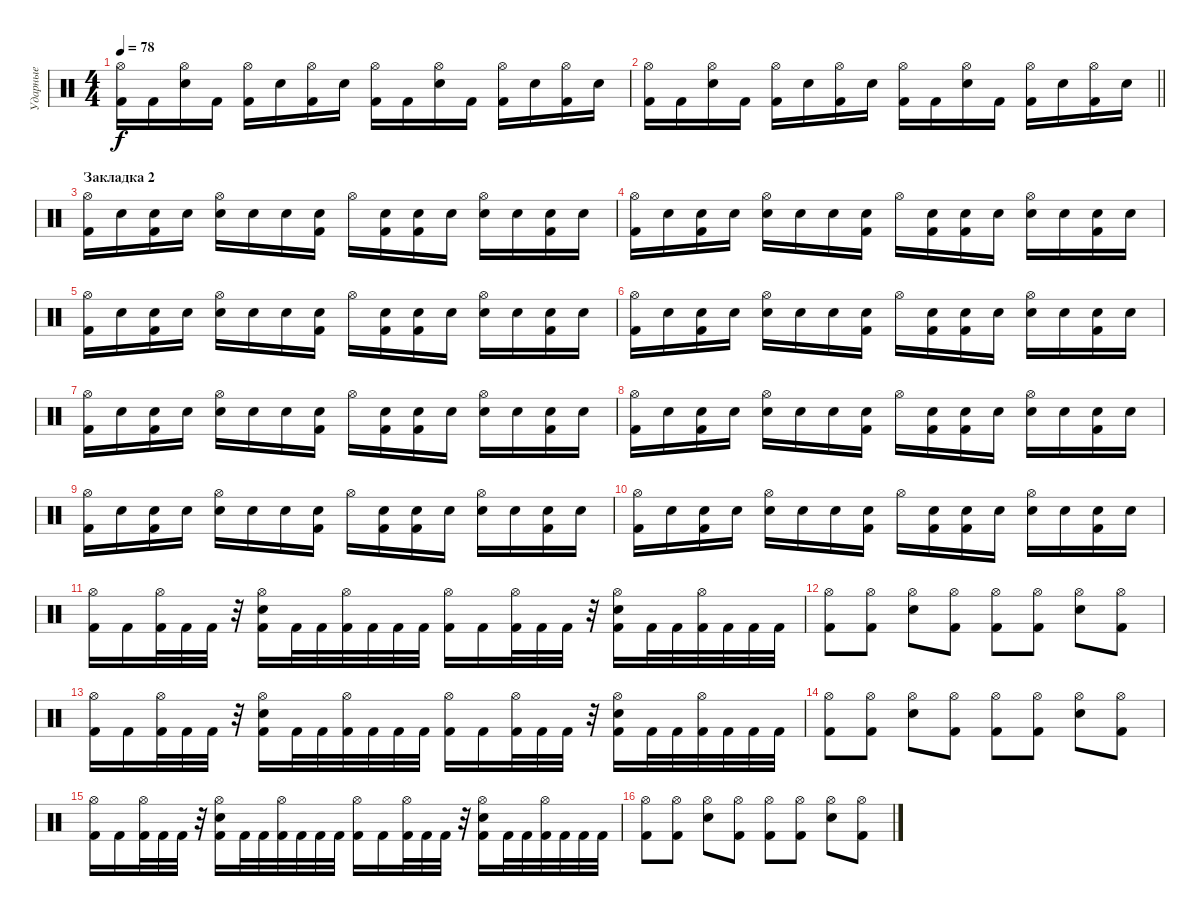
\track ("Ударные" "Ударные") {instrument percussion}
\staff {score}
\articulation defaults
\ts (4 4)
\tempo 78
\clef neutral
\ks c
("Hi-Hat (open)" "Kick (hit) 2").16{dy f} "Kick (hit) 2".16 ("Hi-Hat (open)" "Electric Snare (hit)").16 "Kick (hit) 2".16 ("Hi-Hat (open)" "Kick (hit) 2").16 "Electric Snare (hit)".16 ("Hi-Hat (open)" "Kick (hit) 2").16 "Electric Snare (hit)".16 ("Hi-Hat (open)" "Kick (hit) 2").16 "Kick (hit) 2".16 ("Hi-Hat (open)" "Electric Snare (hit)").16 "Kick (hit) 2".16 ("Hi-Hat (open)" "Kick (hit) 2").16 "Electric Snare (hit)".16 ("Hi-Hat (open)" "Kick (hit) 2").16 "Electric Snare (hit)".16 |
\barLineRight lightlight
("Hi-Hat (open)" "Kick (hit) 2").16 "Kick (hit) 2".16 ("Hi-Hat (open)" "Electric Snare (hit)").16 "Kick (hit) 2".16 ("Hi-Hat (open)" "Kick (hit) 2").16 "Electric Snare (hit)".16 ("Hi-Hat (open)" "Kick (hit) 2").16 "Electric Snare (hit)".16 ("Hi-Hat (open)" "Kick (hit) 2").16 "Kick (hit) 2".16 ("Hi-Hat (open)" "Electric Snare (hit)").16 "Kick (hit) 2".16 ("Hi-Hat (open)" "Kick (hit) 2").16 "Electric Snare (hit)".16 ("Hi-Hat (open)" "Kick (hit) 2").16 "Electric Snare (hit)".16 |
\section ("" "Закладка 2")
("Hi-Hat (open)" "Kick (hit) 2").16 "Snare (hit)".16 ("Snare (hit)" "Kick (hit) 2").16 "Snare (hit)".16 ("Hi-Hat (open)" "Electric Snare (hit)").16 "Snare (hit)".16 "Snare (hit)".16 ("Snare (hit)" "Kick (hit) 2").16 "Hi-Hat (open)".16 ("Snare (hit)" "Kick (hit) 2").16 ("Snare (hit)" "Kick (hit) 2").16 "Snare (hit)".16 ("Hi-Hat (open)" "Electric Snare (hit)").16 "Snare (hit)".16 ("Snare (hit)" "Kick (hit) 2").16 "Snare (hit)".16 |
("Hi-Hat (open)" "Kick (hit) 2").16 "Snare (hit)".16 ("Snare (hit)" "Kick (hit) 2").16 "Snare (hit)".16 ("Hi-Hat (open)" "Electric Snare (hit)").16 "Snare (hit)".16 "Snare (hit)".16 ("Snare (hit)" "Kick (hit) 2").16 "Hi-Hat (open)".16 ("Snare (hit)" "Kick (hit) 2").16 ("Snare (hit)" "Kick (hit) 2").16 "Snare (hit)".16 ("Hi-Hat (open)" "Electric Snare (hit)").16 "Snare (hit)".16 ("Snare (hit)" "Kick (hit) 2").16 "Snare (hit)".16 |
("Hi-Hat (open)" "Kick (hit) 2").16 "Snare (hit)".16 ("Snare (hit)" "Kick (hit) 2").16 "Snare (hit)".16 ("Hi-Hat (open)" "Electric Snare (hit)").16 "Snare (hit)".16 "Snare (hit)".16 ("Snare (hit)" "Kick (hit) 2").16 "Hi-Hat (open)".16 ("Snare (hit)" "Kick (hit) 2").16 ("Snare (hit)" "Kick (hit) 2").16 "Snare (hit)".16 ("Hi-Hat (open)" "Electric Snare (hit)").16 "Snare (hit)".16 ("Snare (hit)" "Kick (hit) 2").16 "Snare (hit)".16 |
("Hi-Hat (open)" "Kick (hit) 2").16 "Snare (hit)".16 ("Snare (hit)" "Kick (hit) 2").16 "Snare (hit)".16 ("Hi-Hat (open)" "Electric Snare (hit)").16 "Snare (hit)".16 "Snare (hit)".16 ("Snare (hit)" "Kick (hit) 2").16 "Hi-Hat (open)".16 ("Snare (hit)" "Kick (hit) 2").16 ("Snare (hit)" "Kick (hit) 2").16 "Snare (hit)".16 ("Hi-Hat (open)" "Electric Snare (hit)").16 "Snare (hit)".16 ("Snare (hit)" "Kick (hit) 2").16 "Snare (hit)".16 |
("Hi-Hat (open)" "Kick (hit) 2").16 "Snare (hit)".16 ("Snare (hit)" "Kick (hit) 2").16 "Snare (hit)".16 ("Hi-Hat (open)" "Electric Snare (hit)").16 "Snare (hit)".16 "Snare (hit)".16 ("Snare (hit)" "Kick (hit) 2").16 "Hi-Hat (open)".16 ("Snare (hit)" "Kick (hit) 2").16 ("Snare (hit)" "Kick (hit) 2").16 "Snare (hit)".16 ("Hi-Hat (open)" "Electric Snare (hit)").16 "Snare (hit)".16 ("Snare (hit)" "Kick (hit) 2").16 "Snare (hit)".16 |
("Hi-Hat (open)" "Kick (hit) 2").16 "Snare (hit)".16 ("Snare (hit)" "Kick (hit) 2").16 "Snare (hit)".16 ("Hi-Hat (open)" "Electric Snare (hit)").16 "Snare (hit)".16 "Snare (hit)".16 ("Snare (hit)" "Kick (hit) 2").16 "Hi-Hat (open)".16 ("Snare (hit)" "Kick (hit) 2").16 ("Snare (hit)" "Kick (hit) 2").16 "Snare (hit)".16 ("Hi-Hat (open)" "Electric Snare (hit)").16 "Snare (hit)".16 ("Snare (hit)" "Kick (hit) 2").16 "Snare (hit)".16 |
("Hi-Hat (open)" "Kick (hit) 2").16 "Snare (hit)".16 ("Snare (hit)" "Kick (hit) 2").16 "Snare (hit)".16 ("Hi-Hat (open)" "Electric Snare (hit)").16 "Snare (hit)".16 "Snare (hit)".16 ("Snare (hit)" "Kick (hit) 2").16 "Hi-Hat (open)".16 ("Snare (hit)" "Kick (hit) 2").16 ("Snare (hit)" "Kick (hit) 2").16 "Snare (hit)".16 ("Hi-Hat (open)" "Electric Snare (hit)").16 "Snare (hit)".16 ("Snare (hit)" "Kick (hit) 2").16 "Snare (hit)".16 |
("Hi-Hat (open)" "Kick (hit) 2").16 "Snare (hit)".16 ("Snare (hit)" "Kick (hit) 2").16 "Snare (hit)".16 ("Hi-Hat (open)" "Electric Snare (hit)").16 "Snare (hit)".16 "Snare (hit)".16 ("Snare (hit)" "Kick (hit) 2").16 "Hi-Hat (open)".16 ("Snare (hit)" "Kick (hit) 2").16 ("Snare (hit)" "Kick (hit) 2").16 "Snare (hit)".16 ("Hi-Hat (open)" "Electric Snare (hit)").16 "Snare (hit)".16 ("Snare (hit)" "Kick (hit) 2").16 "Snare (hit)".16 |
("Hi-Hat (open)" "Kick (hit) 2").16 "Kick (hit) 2".16 ("Hi-Hat (open)" "Kick (hit) 2").32 "Kick (hit) 2".32 "Kick (hit) 2".32 r.32 ("Electric Snare (hit)" "Hi-Hat (open)" "Kick (hit) 2").16 "Kick (hit) 2".32 "Kick (hit) 2".32 ("Hi-Hat (open)" "Kick (hit) 2").32 "Kick (hit) 2".32 "Kick (hit) 2".32 "Kick (hit) 2".32 ("Hi-Hat (open)" "Kick (hit) 2").16 "Kick (hit) 2".16 ("Hi-Hat (open)" "Kick (hit) 2").32 "Kick (hit) 2".32 "Kick (hit) 2".32 r.32 ("Electric Snare (hit)" "Hi-Hat (open)" "Kick (hit) 2").16 "Kick (hit) 2".32 "Kick (hit) 2".32 ("Hi-Hat (open)" "Kick (hit) 2").32 "Kick (hit) 2".32 "Kick (hit) 2".32 "Kick (hit) 2".32 |
("Hi-Hat (open)" "Kick (hit) 2").8 ("Hi-Hat (open)" "Kick (hit) 2").8 ("Hi-Hat (open)" "Electric Snare (hit)").8 ("Hi-Hat (open)" "Kick (hit) 2").8 ("Hi-Hat (open)" "Kick (hit) 2").8 ("Hi-Hat (open)" "Kick (hit) 2").8 ("Hi-Hat (open)" "Electric Snare (hit)").8 ("Hi-Hat (open)" "Kick (hit) 2").8 |
("Hi-Hat (open)" "Kick (hit) 2").16 "Kick (hit) 2".16 ("Hi-Hat (open)" "Kick (hit) 2").32 "Kick (hit) 2".32 "Kick (hit) 2".32 r.32 ("Electric Snare (hit)" "Hi-Hat (open)" "Kick (hit) 2").16 "Kick (hit) 2".32 "Kick (hit) 2".32 ("Hi-Hat (open)" "Kick (hit) 2").32 "Kick (hit) 2".32 "Kick (hit) 2".32 "Kick (hit) 2".32 ("Hi-Hat (open)" "Kick (hit) 2").16 "Kick (hit) 2".16 ("Hi-Hat (open)" "Kick (hit) 2").32 "Kick (hit) 2".32 "Kick (hit) 2".32 r.32 ("Electric Snare (hit)" "Hi-Hat (open)" "Kick (hit) 2").16 "Kick (hit) 2".32 "Kick (hit) 2".32 ("Hi-Hat (open)" "Kick (hit) 2").32 "Kick (hit) 2".32 "Kick (hit) 2".32 "Kick (hit) 2".32 |
("Hi-Hat (open)" "Kick (hit) 2").8 ("Hi-Hat (open)" "Kick (hit) 2").8 ("Hi-Hat (open)" "Electric Snare (hit)").8 ("Hi-Hat (open)" "Kick (hit) 2").8 ("Hi-Hat (open)" "Kick (hit) 2").8 ("Hi-Hat (open)" "Kick (hit) 2").8 ("Hi-Hat (open)" "Electric Snare (hit)").8 ("Hi-Hat (open)" "Kick (hit) 2").8 |
("Hi-Hat (open)" "Kick (hit) 2").16 "Kick (hit) 2".16 ("Hi-Hat (open)" "Kick (hit) 2").32 "Kick (hit) 2".32 "Kick (hit) 2".32 r.32 ("Electric Snare (hit)" "Hi-Hat (open)" "Kick (hit) 2").16 "Kick (hit) 2".32 "Kick (hit) 2".32 ("Hi-Hat (open)" "Kick (hit) 2").32 "Kick (hit) 2".32 "Kick (hit) 2".32 "Kick (hit) 2".32 ("Hi-Hat (open)" "Kick (hit) 2").16 "Kick (hit) 2".16 ("Hi-Hat (open)" "Kick (hit) 2").32 "Kick (hit) 2".32 "Kick (hit) 2".32 r.32 ("Electric Snare (hit)" "Hi-Hat (open)" "Kick (hit) 2").16 "Kick (hit) 2".32 "Kick (hit) 2".32 ("Hi-Hat (open)" "Kick (hit) 2").32 "Kick (hit) 2".32 "Kick (hit) 2".32 "Kick (hit) 2".32 |
("Hi-Hat (open)" "Kick (hit) 2").8 ("Hi-Hat (open)" "Kick (hit) 2").8 ("Hi-Hat (open)" "Electric Snare (hit)").8 ("Hi-Hat (open)" "Kick (hit) 2").8 ("Hi-Hat (open)" "Kick (hit) 2").8 ("Hi-Hat (open)" "Kick (hit) 2").8 ("Hi-Hat (open)" "Electric Snare (hit)").8 ("Hi-Hat (open)" "Kick (hit) 2").8
